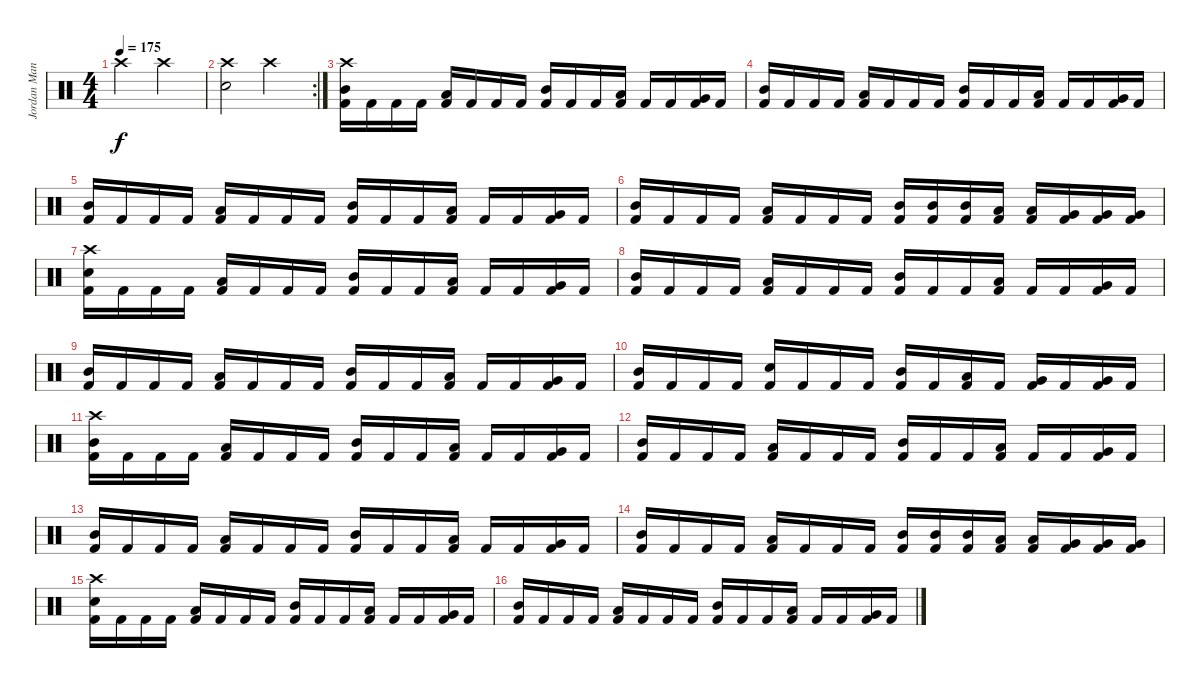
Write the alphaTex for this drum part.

\track ("Jordan Mancini" "Jordan Man") {instrument percussion}
\staff {score}
\articulation defaults
\ts (4 4)
\tempo 175
\clef neutral
\ks c "Crash high (hit)".2{dy f} "Crash high (hit)".2
|
\rc 2
("Crash high (hit)" "Snare (hit) 2").2 "Crash high (hit)".2 |
("Crash high (hit)" "Mid Tom (hit)" "Kick (hit) 2").16 "Kick (hit) 2".16 "Kick (hit) 2".16 "Kick (hit) 2".16 ("Low Tom (hit)" "Kick (hit) 2").16 "Kick (hit) 2".16 "Kick (hit) 2".16 "Kick (hit) 2".16 ("Mid Tom (hit)" "Kick (hit) 2").16 "Kick (hit) 2".16 "Kick (hit) 2".16 ("Low Tom (hit)" "Kick (hit) 2").16 "Kick (hit) 2".16 "Kick (hit) 2".16 ("Very Low Tom (hit)" "Kick (hit) 2").16 "Kick (hit) 2".16 |
("Mid Tom (hit)" "Kick (hit) 2").16 "Kick (hit) 2".16 "Kick (hit) 2".16 "Kick (hit) 2".16 ("Low Tom (hit)" "Kick (hit) 2").16 "Kick (hit) 2".16 "Kick (hit) 2".16 "Kick (hit) 2".16 ("Mid Tom (hit)" "Kick (hit) 2").16 "Kick (hit) 2".16 "Kick (hit) 2".16 ("Low Tom (hit)" "Kick (hit) 2").16 "Kick (hit) 2".16 "Kick (hit) 2".16 ("Very Low Tom (hit)" "Kick (hit) 2").16 "Kick (hit) 2".16 |
("Mid Tom (hit)" "Kick (hit) 2").16 "Kick (hit) 2".16 "Kick (hit) 2".16 "Kick (hit) 2".16 ("Low Tom (hit)" "Kick (hit) 2").16 "Kick (hit) 2".16 "Kick (hit) 2".16 "Kick (hit) 2".16 ("Mid Tom (hit)" "Kick (hit) 2").16 "Kick (hit) 2".16 "Kick (hit) 2".16 ("Low Tom (hit)" "Kick (hit) 2").16 "Kick (hit) 2".16 "Kick (hit) 2".16 ("Very Low Tom (hit)" "Kick (hit) 2").16 "Kick (hit) 2".16 |
("Mid Tom (hit)" "Kick (hit) 2").16 "Kick (hit) 2".16 "Kick (hit) 2".16 "Kick (hit) 2".16 ("Low Tom (hit)" "Kick (hit) 2").16 "Kick (hit) 2".16 "Kick (hit) 2".16 "Kick (hit) 2".16 ("Mid Tom (hit)" "Kick (hit) 2").16 ("Mid Tom (hit)" "Kick (hit) 2").16 ("Mid Tom (hit)" "Kick (hit) 2").16 ("Low Tom (hit)" "Kick (hit) 2").16 ("Low Tom (hit)" "Kick (hit) 2").16 ("Very Low Tom (hit)" "Kick (hit) 2").16 ("Very Low Tom (hit)" "Kick (hit) 2").16 ("Very Low Tom (hit)" "Kick (hit) 2").16 |
("Crash high (hit)" "Snare (hit) 2" "Kick (hit) 2").16 "Kick (hit) 2".16 "Kick (hit) 2".16 "Kick (hit) 2".16 ("Low Tom (hit)" "Kick (hit) 2").16 "Kick (hit) 2".16 "Kick (hit) 2".16 "Kick (hit) 2".16 ("Mid Tom (hit)" "Kick (hit) 2").16 "Kick (hit) 2".16 "Kick (hit) 2".16 ("Low Tom (hit)" "Kick (hit) 2").16 "Kick (hit) 2".16 "Kick (hit) 2".16 ("Very Low Tom (hit)" "Kick (hit) 2").16 "Kick (hit) 2".16 |
("Mid Tom (hit)" "Kick (hit) 2").16 "Kick (hit) 2".16 "Kick (hit) 2".16 "Kick (hit) 2".16 ("Low Tom (hit)" "Kick (hit) 2").16 "Kick (hit) 2".16 "Kick (hit) 2".16 "Kick (hit) 2".16 ("Mid Tom (hit)" "Kick (hit) 2").16 "Kick (hit) 2".16 "Kick (hit) 2".16 ("Low Tom (hit)" "Kick (hit) 2").16 "Kick (hit) 2".16 "Kick (hit) 2".16 ("Very Low Tom (hit)" "Kick (hit) 2").16 "Kick (hit) 2".16 |
("Mid Tom (hit)" "Kick (hit) 2").16 "Kick (hit) 2".16 "Kick (hit) 2".16 "Kick (hit) 2".16 ("Low Tom (hit)" "Kick (hit) 2").16 "Kick (hit) 2".16 "Kick (hit) 2".16 "Kick (hit) 2".16 ("Mid Tom (hit)" "Kick (hit) 2").16 "Kick (hit) 2".16 "Kick (hit) 2".16 ("Low Tom (hit)" "Kick (hit) 2").16 "Kick (hit) 2".16 "Kick (hit) 2".16 ("Very Low Tom (hit)" "Kick (hit) 2").16 "Kick (hit) 2".16 |
("Mid Tom (hit)" "Kick (hit) 2").16 "Kick (hit) 2".16 "Kick (hit) 2".16 "Kick (hit) 2".16 ("Snare (hit) 2" "Kick (hit) 2").16 "Kick (hit) 2".16 "Kick (hit) 2".16 "Kick (hit) 2".16 ("Mid Tom (hit)" "Kick (hit) 2").16 "Kick (hit) 2".16 ("Low Tom (hit)" "Kick (hit) 2").16 "Kick (hit) 2".16 ("Very Low Tom (hit)" "Kick (hit) 2").16 "Kick (hit) 2".16 ("Very Low Tom (hit)" "Kick (hit) 2").16 "Kick (hit) 2".16 |
("Crash high (hit)" "Mid Tom (hit)" "Kick (hit) 2").16 "Kick (hit) 2".16 "Kick (hit) 2".16 "Kick (hit) 2".16 ("Low Tom (hit)" "Kick (hit) 2").16 "Kick (hit) 2".16 "Kick (hit) 2".16 "Kick (hit) 2".16 ("Mid Tom (hit)" "Kick (hit) 2").16 "Kick (hit) 2".16 "Kick (hit) 2".16 ("Low Tom (hit)" "Kick (hit) 2").16 "Kick (hit) 2".16 "Kick (hit) 2".16 ("Very Low Tom (hit)" "Kick (hit) 2").16 "Kick (hit) 2".16 |
("Mid Tom (hit)" "Kick (hit) 2").16 "Kick (hit) 2".16 "Kick (hit) 2".16 "Kick (hit) 2".16 ("Low Tom (hit)" "Kick (hit) 2").16 "Kick (hit) 2".16 "Kick (hit) 2".16 "Kick (hit) 2".16 ("Mid Tom (hit)" "Kick (hit) 2").16 "Kick (hit) 2".16 "Kick (hit) 2".16 ("Low Tom (hit)" "Kick (hit) 2").16 "Kick (hit) 2".16 "Kick (hit) 2".16 ("Very Low Tom (hit)" "Kick (hit) 2").16 "Kick (hit) 2".16 |
("Mid Tom (hit)" "Kick (hit) 2").16 "Kick (hit) 2".16 "Kick (hit) 2".16 "Kick (hit) 2".16 ("Low Tom (hit)" "Kick (hit) 2").16 "Kick (hit) 2".16 "Kick (hit) 2".16 "Kick (hit) 2".16 ("Mid Tom (hit)" "Kick (hit) 2").16 "Kick (hit) 2".16 "Kick (hit) 2".16 ("Low Tom (hit)" "Kick (hit) 2").16 "Kick (hit) 2".16 "Kick (hit) 2".16 ("Very Low Tom (hit)" "Kick (hit) 2").16 "Kick (hit) 2".16 |
("Mid Tom (hit)" "Kick (hit) 2").16 "Kick (hit) 2".16 "Kick (hit) 2".16 "Kick (hit) 2".16 ("Low Tom (hit)" "Kick (hit) 2").16 "Kick (hit) 2".16 "Kick (hit) 2".16 "Kick (hit) 2".16 ("Mid Tom (hit)" "Kick (hit) 2").16 ("Mid Tom (hit)" "Kick (hit) 2").16 ("Mid Tom (hit)" "Kick (hit) 2").16 ("Low Tom (hit)" "Kick (hit) 2").16 ("Low Tom (hit)" "Kick (hit) 2").16 ("Very Low Tom (hit)" "Kick (hit) 2").16 ("Very Low Tom (hit)" "Kick (hit) 2").16 ("Very Low Tom (hit)" "Kick (hit) 2").16 |
("Crash high (hit)" "Snare (hit) 2" "Kick (hit) 2").16 "Kick (hit) 2".16 "Kick (hit) 2".16 "Kick (hit) 2".16 ("Low Tom (hit)" "Kick (hit) 2").16 "Kick (hit) 2".16 "Kick (hit) 2".16 "Kick (hit) 2".16 ("Mid Tom (hit)" "Kick (hit) 2").16 "Kick (hit) 2".16 "Kick (hit) 2".16 ("Low Tom (hit)" "Kick (hit) 2").16 "Kick (hit) 2".16 "Kick (hit) 2".16 ("Very Low Tom (hit)" "Kick (hit) 2").16 "Kick (hit) 2".16 |
("Mid Tom (hit)" "Kick (hit) 2").16 "Kick (hit) 2".16 "Kick (hit) 2".16 "Kick (hit) 2".16 ("Low Tom (hit)" "Kick (hit) 2").16 "Kick (hit) 2".16 "Kick (hit) 2".16 "Kick (hit) 2".16 ("Mid Tom (hit)" "Kick (hit) 2").16 "Kick (hit) 2".16 "Kick (hit) 2".16 ("Low Tom (hit)" "Kick (hit) 2").16 "Kick (hit) 2".16 "Kick (hit) 2".16 ("Very Low Tom (hit)" "Kick (hit) 2").16 "Kick (hit) 2".16
